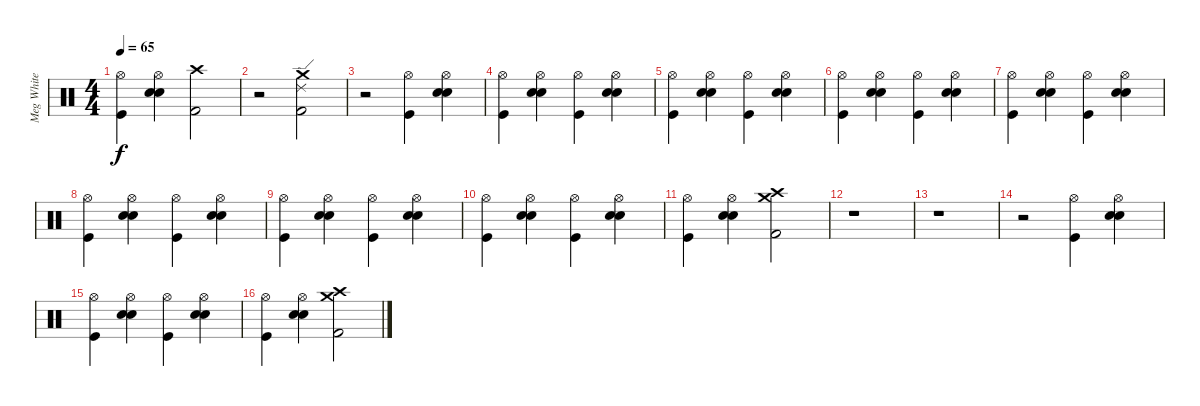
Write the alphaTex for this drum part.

\track ("Meg White" "Meg White") {instrument percussion}
\staff {score}
\articulation defaults
\ts (4 4)
\tempo 65
\clef neutral
\ks c
("Kick (hit)" "Hi-Hat (open)").4{dy f} ("Electric Snare (hit)" "Electric Snare (hit)" "Hi-Hat (open)").4 ("Kick (hit) 2" "Crash high (hit)").2 |
r.2 ("Kick (hit) 2" "Ride (edge) 2" "Crash medium (hit)").2 |
r.2 ("Kick (hit)" "Hi-Hat (open)").4 ("Electric Snare (hit)" "Electric Snare (hit)" "Hi-Hat (open)").4 |
("Kick (hit)" "Hi-Hat (open)").4 ("Electric Snare (hit)" "Electric Snare (hit)" "Hi-Hat (open)").4 ("Kick (hit)" "Hi-Hat (open)").4 ("Electric Snare (hit)" "Electric Snare (hit)" "Hi-Hat (open)").4 |
("Kick (hit)" "Hi-Hat (open)").4 ("Electric Snare (hit)" "Electric Snare (hit)" "Hi-Hat (open)").4 ("Kick (hit)" "Hi-Hat (open)").4 ("Electric Snare (hit)" "Electric Snare (hit)" "Hi-Hat (open)").4 |
("Kick (hit)" "Hi-Hat (open)").4 ("Electric Snare (hit)" "Electric Snare (hit)" "Hi-Hat (open)").4 ("Kick (hit)" "Hi-Hat (open)").4 ("Electric Snare (hit)" "Electric Snare (hit)" "Hi-Hat (open)").4 |
("Kick (hit)" "Hi-Hat (open)").4 ("Electric Snare (hit)" "Electric Snare (hit)" "Hi-Hat (open)").4 ("Kick (hit)" "Hi-Hat (open)").4 ("Electric Snare (hit)" "Electric Snare (hit)" "Hi-Hat (open)").4 |
("Kick (hit)" "Hi-Hat (open)").4 ("Electric Snare (hit)" "Electric Snare (hit)" "Hi-Hat (open)").4 ("Kick (hit)" "Hi-Hat (open)").4 ("Electric Snare (hit)" "Electric Snare (hit)" "Hi-Hat (open)").4 |
("Kick (hit)" "Hi-Hat (open)").4 ("Electric Snare (hit)" "Electric Snare (hit)" "Hi-Hat (open)").4 ("Kick (hit)" "Hi-Hat (open)").4 ("Electric Snare (hit)" "Electric Snare (hit)" "Hi-Hat (open)").4 |
("Kick (hit)" "Hi-Hat (open)").4 ("Electric Snare (hit)" "Electric Snare (hit)" "Hi-Hat (open)").4 ("Kick (hit)" "Hi-Hat (open)").4 ("Electric Snare (hit)" "Electric Snare (hit)" "Hi-Hat (open)").4 |
("Kick (hit)" "Hi-Hat (open)").4 ("Electric Snare (hit)" "Electric Snare (hit)" "Hi-Hat (open)").4 ("Kick (hit) 2" "Crash high (hit)" "Crash medium (hit)").2 |
r.1 |
r.1 |
r.2 ("Kick (hit)" "Hi-Hat (open)").4 ("Electric Snare (hit)" "Electric Snare (hit)" "Hi-Hat (open)").4 |
("Kick (hit)" "Hi-Hat (open)").4 ("Electric Snare (hit)" "Electric Snare (hit)" "Hi-Hat (open)").4 ("Kick (hit)" "Hi-Hat (open)").4 ("Electric Snare (hit)" "Electric Snare (hit)" "Hi-Hat (open)").4 |
("Kick (hit)" "Hi-Hat (open)").4 ("Electric Snare (hit)" "Electric Snare (hit)" "Hi-Hat (open)").4 ("Kick (hit) 2" "Crash high (hit)" "Crash medium (hit)").2
